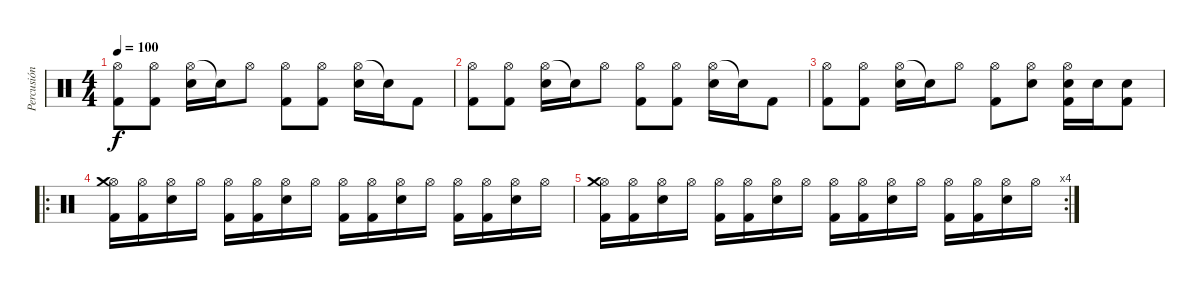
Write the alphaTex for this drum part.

\track ("Percusión" "Percusión") {instrument percussion}
\staff {score}
\articulation defaults
\ts (4 4)
\tempo 100
\clef neutral
\ks c
("Hi-Hat (open)" "Kick (hit) 2").8{dy f} ("Hi-Hat (open)" "Kick (hit) 2").8 ("Hi-Hat (open)" "Snare (hit) 2").16 "Snare (hit)"{t}.16 "Hi-Hat (open)".8 ("Hi-Hat (open)" "Kick (hit) 2").8 ("Hi-Hat (open)" "Kick (hit) 2").8 ("Hi-Hat (open)" "Snare (hit) 2").16 "Snare (hit)"{t}.16 "Kick (hit) 2".8 |
("Hi-Hat (open)" "Kick (hit) 2").8 ("Hi-Hat (open)" "Kick (hit) 2").8 ("Hi-Hat (open)" "Snare (hit) 2").16 "Snare (hit)"{t}.16 "Hi-Hat (open)".8 ("Hi-Hat (open)" "Kick (hit) 2").8 ("Hi-Hat (open)" "Kick (hit) 2").8 ("Hi-Hat (open)" "Snare (hit) 2").16 "Snare (hit)"{t}.16 "Kick (hit) 2".8 |
("Hi-Hat (open)" "Kick (hit) 2").8 ("Hi-Hat (open)" "Kick (hit) 2").8 ("Hi-Hat (open)" "Snare (hit) 2").16 "Snare (hit)"{t}.16 "Hi-Hat (open)".8 ("Hi-Hat (open)" "Kick (hit) 2").8 ("Hi-Hat (open)" "Snare (hit) 2").8 ("Hi-Hat (open)" "Snare (hit) 2" "Kick (hit) 2").16 "Snare (hit) 2".16 ("Snare (hit) 2" "Kick (hit) 2").8 |
\ro
("Kick (hit) 2" "Hi-Hat (open)" "Crash medium (hit)").16 ("Kick (hit) 2" "Hi-Hat (open)").16 ("Snare (hit) 2" "Hi-Hat (open)").16 "Hi-Hat (open)".16 ("Kick (hit) 2" "Hi-Hat (open)").16 ("Kick (hit) 2" "Hi-Hat (open)").16 ("Snare (hit) 2" "Hi-Hat (open)").16 "Hi-Hat (open)".16 ("Kick (hit) 2" "Hi-Hat (open)").16 ("Kick (hit) 2" "Hi-Hat (open)").16 ("Snare (hit) 2" "Hi-Hat (open)").16 "Hi-Hat (open)".16 ("Kick (hit) 2" "Hi-Hat (open)").16 ("Kick (hit) 2" "Hi-Hat (open)").16 ("Snare (hit) 2" "Hi-Hat (open)").16 "Hi-Hat (open)".16 |
\rc 4
("Kick (hit) 2" "Hi-Hat (open)" "Crash medium (hit)").16 ("Kick (hit) 2" "Hi-Hat (open)").16 ("Snare (hit) 2" "Hi-Hat (open)").16 "Hi-Hat (open)".16 ("Kick (hit) 2" "Hi-Hat (open)").16 ("Kick (hit) 2" "Hi-Hat (open)").16 ("Snare (hit) 2" "Hi-Hat (open)").16 "Hi-Hat (open)".16 ("Kick (hit) 2" "Hi-Hat (open)").16 ("Kick (hit) 2" "Hi-Hat (open)").16 ("Snare (hit) 2" "Hi-Hat (open)").16 "Hi-Hat (open)".16 ("Kick (hit) 2" "Hi-Hat (open)").16 ("Kick (hit) 2" "Hi-Hat (open)").16 ("Snare (hit) 2" "Hi-Hat (open)").16 "Hi-Hat (open)".16
